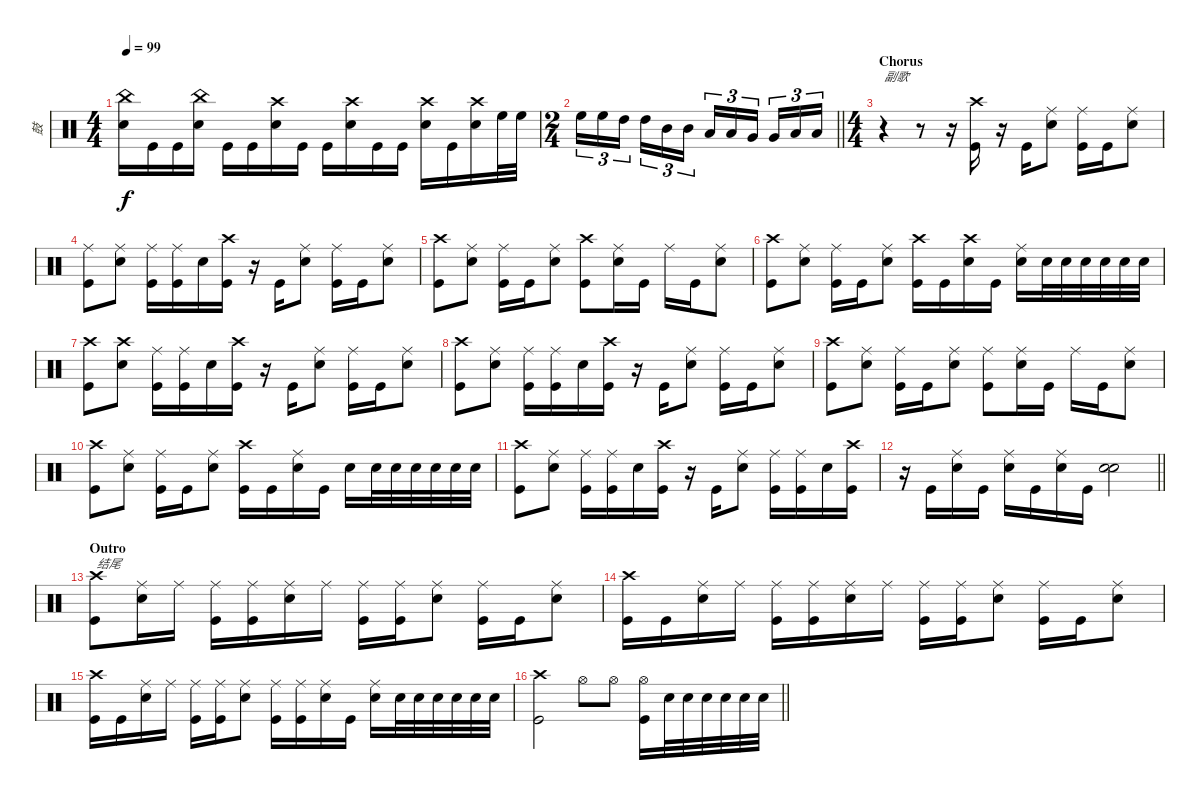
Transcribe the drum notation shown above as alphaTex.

\track ("鼓" "鼓") {instrument percussion}
\staff {score}
\articulation defaults
\ts (4 4)
\tempo 99
\clef neutral
\ks c
("Snare (hit) 2" "China (hit)").16{dy f} "Kick (hit)".16 "Kick (hit)".16 ("Snare (hit) 2" "China (hit)").16 "Kick (hit)".16 "Kick (hit)".16 ("Snare (hit) 2" "Crash high (hit)").16 "Kick (hit)".16 "Kick (hit)".16 ("Snare (hit) 2" "Crash high (hit)").16 "Kick (hit)".16 "Kick (hit)".16 ("Snare (hit) 2" "Crash high (hit)").16 "Kick (hit)".16 ("Snare (hit) 2" "Crash high (hit)").16 "High Floor Tom (hit)".32 "High Floor Tom (hit)".32 |
\ts (2 4)
\barLineRight lightlight "High Floor Tom (hit)".16{tu (3 2)} "High Floor Tom (hit)".16{tu (3 2)} "High Tom (hit)".16{tu (3 2) beam splitsecondary} "High Tom (hit)".16{tu (3 2)} "Mid Tom (hit)".16{tu (3 2)} "Mid Tom (hit)".16{tu (3 2)} "Low Tom (hit)".16{tu (3 2)} "Low Tom (hit)".16{tu (3 2)} "Very Low Tom (hit)".16{tu (3 2) beam splitsecondary} "Very Low Tom (hit)".16{tu (3 2)} "Low Floor Tom (hit)".16{tu (3 2)} "Low Floor Tom (hit)".16{tu (3 2)}
|
\ts (4 4)
\section ("" "Chorus")
r.4{txt "副歌"} r.8 r.16 ("Kick (hit)" "Crash high (hit)").16 r.16 "Kick (hit)".16 ("Snare (hit) 2" "Ride (middle)").8 ("Ride (middle)" "Kick (hit)").16 "Kick (hit)".16 ("Snare (hit) 2" "Ride (middle)").8 |
("Kick (hit)" "Ride (middle)").8 ("Snare (hit) 2" "Ride (middle)").8 ("Ride (middle)" "Kick (hit)").16 ("Kick (hit)" "Ride (middle)").16 "Snare (hit) 2".16 ("Crash high (hit)" "Kick (hit)").16 r.16 "Kick (hit)".16 ("Snare (hit) 2" "Ride (middle)").8 ("Ride (middle)" "Kick (hit)").16 "Kick (hit)".16 ("Snare (hit) 2" "Ride (middle)").8 |
("Kick (hit)" "Crash high (hit)").8 ("Snare (hit) 2" "Ride (middle)").8 ("Kick (hit)" "Ride (middle)").16 "Kick (hit)".16 ("Snare (hit) 2" "Ride (middle)").8 ("Kick (hit)" "Crash high (hit)").8 ("Snare (hit) 2" "Ride (middle)").16 "Kick (hit)".16 "Ride (middle)".16 "Kick (hit)".16 ("Snare (hit) 2" "Ride (middle)").8 |
("Kick (hit)" "Crash high (hit)").8 ("Snare (hit) 2" "Ride (middle)").8 ("Ride (middle)" "Kick (hit)").16 "Kick (hit)".16 ("Snare (hit) 2" "Ride (middle)").8 ("Kick (hit)" "Crash high (hit)").16 "Kick (hit)".16 ("Snare (hit) 2" "Crash high (hit)").16 "Kick (hit)".16 ("Snare (hit) 2" "Ride (middle)").16 "Snare (hit) 2".32 "Snare (hit) 2".32 "Snare (hit) 2".32 "Snare (hit) 2".32 "Snare (hit) 2".32 "Snare (hit) 2".32 |
("Kick (hit)" "Crash high (hit)").8 ("Snare (hit) 2" "Crash high (hit)").8 ("Ride (middle)" "Kick (hit)").16 ("Kick (hit)" "Ride (middle)").16 "Snare (hit) 2".16 ("Crash high (hit)" "Kick (hit)").16 r.16 "Kick (hit)".16 ("Snare (hit) 2" "Ride (middle)").8 ("Ride (middle)" "Kick (hit)").16 "Kick (hit)".16 ("Snare (hit) 2" "Ride (middle)").8 |
("Kick (hit)" "Crash high (hit)").8 ("Snare (hit) 2" "Ride (middle)").8 ("Ride (middle)" "Kick (hit)").16 ("Kick (hit)" "Ride (middle)").16 "Snare (hit) 2".16 ("Crash high (hit)" "Kick (hit)").16 r.16 "Kick (hit)".16 ("Snare (hit) 2" "Ride (middle)").8 ("Kick (hit)" "Ride (middle)").16 "Kick (hit)".16 ("Snare (hit) 2" "Ride (middle)").8 |
("Kick (hit)" "Crash high (hit)").8 ("Snare (hit) 2" "Ride (middle)").8 ("Ride (middle)" "Kick (hit)").16 "Kick (hit)".16 ("Snare (hit) 2" "Ride (middle)").8 ("Ride (middle)" "Kick (hit)").8 ("Snare (hit) 2" "Ride (middle)").16 "Kick (hit)".16 "Ride (middle)".16 "Kick (hit)".16 ("Snare (hit) 2" "Ride (middle)").8 |
("Kick (hit)" "Crash high (hit)").8 ("Snare (hit) 2" "Ride (middle)").8 ("Ride (middle)" "Kick (hit)").16 "Kick (hit)".16 ("Snare (hit) 2" "Ride (middle)").8 ("Kick (hit)" "Crash high (hit)").16 "Kick (hit)".16 ("Snare (hit) 2" "Ride (middle)").16 "Kick (hit)".16 "Snare (hit) 2".16 "Snare (hit) 2".32 "Snare (hit) 2".32 "Snare (hit) 2".32 "Snare (hit) 2".32 "Snare (hit) 2".32 "Snare (hit) 2".32 |
("Kick (hit)" "Crash high (hit)").8 ("Snare (hit) 2" "Ride (middle)").8 ("Ride (middle)" "Kick (hit)").16 ("Kick (hit)" "Ride (middle)").16 "Snare (hit) 2".16 ("Crash high (hit)" "Kick (hit)").16 r.16 "Kick (hit)".16 ("Snare (hit) 2" "Ride (middle)").8 ("Ride (middle)" "Kick (hit)").16 ("Kick (hit)" "Ride (middle)").16 "Snare (hit) 2".16 ("Crash high (hit)" "Kick (hit)").16 |
\barLineRight lightlight
r.16 "Kick (hit)".16 ("Snare (hit) 2" "Ride (middle)").16 "Kick (hit)".16 ("Snare (hit) 2" "Ride (middle)").16 "Kick (hit)".16 ("Snare (hit) 2" "Ride (middle)").16 "Kick (hit)".16 ("Snare (hit) 2" "Snare (hit) 2").2 |
\section ("" "Outro")
("Kick (hit)" "Crash high (hit)").8{txt "结尾"} ("Snare (hit) 2" "Ride (middle)").16 "Ride (middle)".16 ("Kick (hit)" "Ride (middle)").16 ("Ride (middle)" "Kick (hit)").16 ("Snare (hit) 2" "Ride (middle)").16 "Ride (middle)".16 ("Kick (hit)" "Ride (middle)").16 ("Kick (hit)" "Ride (middle)").16 ("Snare (hit) 2" "Ride (middle)").8 ("Kick (hit)" "Ride (middle)").16 "Kick (hit)".16 ("Snare (hit) 2" "Ride (middle)").8 |
("Kick (hit)" "Crash high (hit)").16 "Kick (hit)".16 ("Snare (hit) 2" "Ride (middle)").16 "Ride (middle)".16 ("Kick (hit)" "Ride (middle)").16 ("Kick (hit)" "Ride (middle)").16 ("Snare (hit) 2" "Ride (middle)").16 "Ride (middle)".16 ("Kick (hit)" "Ride (middle)").16 ("Kick (hit)" "Ride (middle)").16 ("Snare (hit) 2" "Ride (middle)").8 ("Kick (hit)" "Ride (middle)").16 "Kick (hit)".16 ("Snare (hit) 2" "Ride (middle)").8 |
("Kick (hit)" "Crash high (hit)").16 "Kick (hit)".16 ("Snare (hit) 2" "Ride (middle)").16 "Ride (middle)".16 ("Kick (hit)" "Ride (middle)").16 ("Kick (hit)" "Ride (middle)").16 ("Snare (hit) 2" "Ride (middle)").8 ("Kick (hit)" "Ride (middle)").16 ("Kick (hit)" "Ride (middle)").16 ("Snare (hit) 2" "Ride (middle)").16 "Kick (hit)".16 ("Snare (hit) 2" "Ride (middle)").16 "Snare (hit) 2".32 "Snare (hit) 2".32 "Snare (hit) 2".32 "Snare (hit) 2".32 "Snare (hit) 2".32 "Snare (hit) 2".32 |
\barLineRight lightlight
("Crash high (hit)" "Kick (hit)").2 "Hi-Hat (open)".8 "Hi-Hat (open)".8 ("Kick (hit)" "Hi-Hat (open)").16 "Snare (hit) 2".32 "Snare (hit) 2".32 "Snare (hit) 2".32 "Snare (hit) 2".32 "Snare (hit) 2".32 "Snare (hit) 2".32
